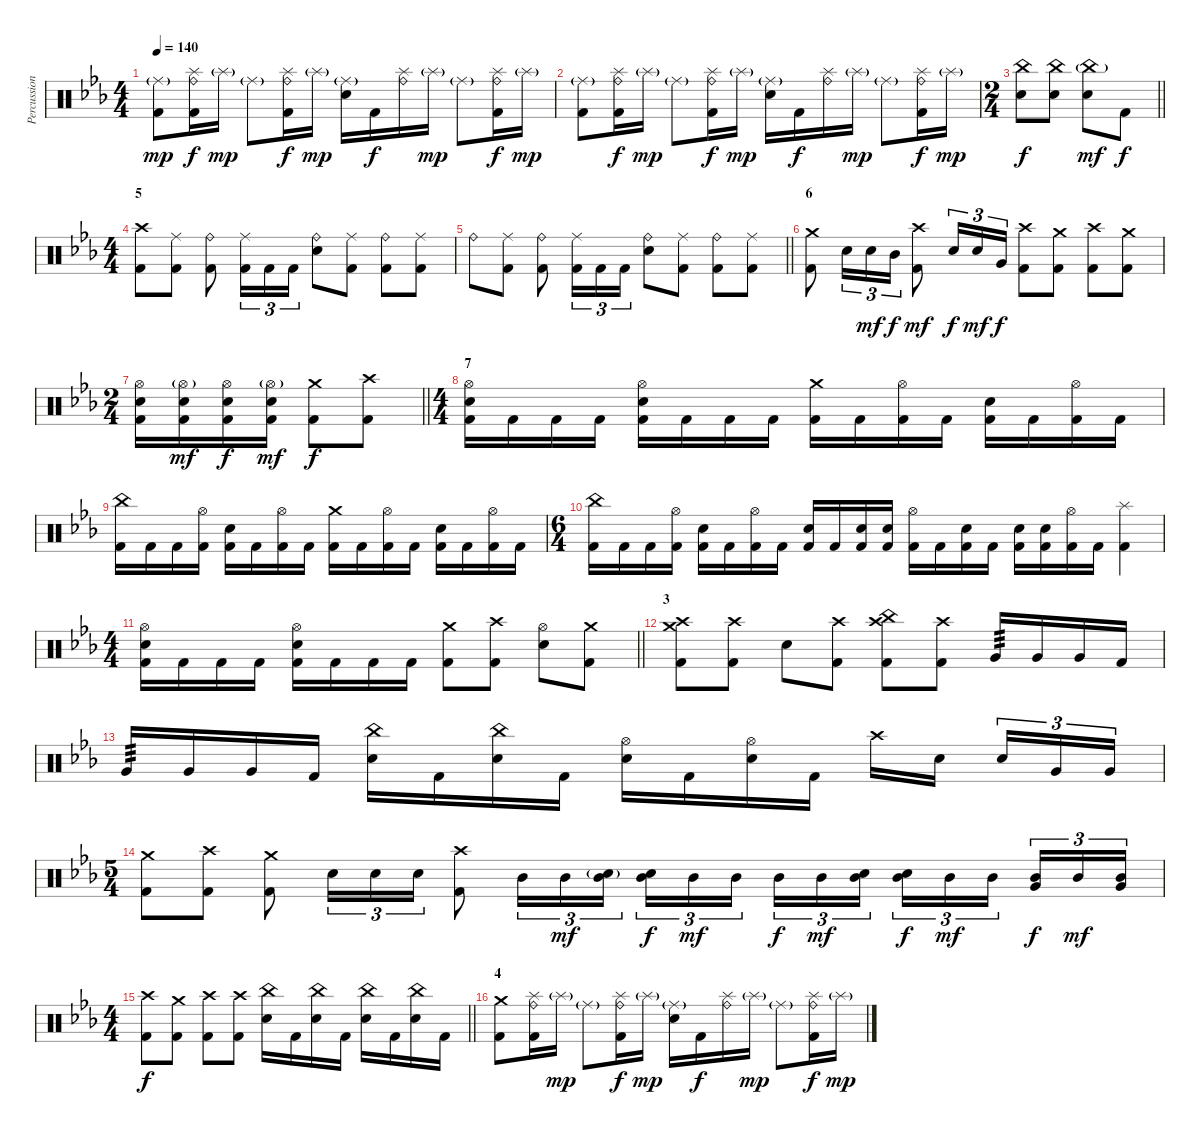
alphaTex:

\track ("Percussion" "Percussion") {instrument percussion}
\staff {score}
\articulation defaults
\ts (4 4)
\tempo 140
\clef neutral
\ks cminor
("Ride (middle)"{g} "Kick (hit) 2").8{dy mp} ("Ride (bell)" "Splash (hit)" "Kick (hit) 2").16{dy f} "Splash (hit)"{g}.16{dy mp} "Ride (middle)"{g}.8 ("Ride (bell)" "Splash (hit)" "Kick (hit) 2").16{dy f} "Splash (hit)"{g}.16{dy mp} ("Ride (middle)"{g} "Snare (hit) 2").16 "Kick (hit) 2".16{dy f} ("Ride (bell)" "Splash (hit)").16 "Splash (hit)"{g}.16{dy mp} "Ride (middle)"{g}.8 ("Ride (bell)" "Splash (hit)" "Kick (hit) 2").16{dy f} "Splash (hit)"{g}.16{dy mp} |
("Ride (middle)"{g} "Kick (hit) 2").8 ("Ride (bell)" "Splash (hit)" "Kick (hit) 2").16{dy f} "Splash (hit)"{g}.16{dy mp} "Ride (middle)"{g}.8 ("Ride (bell)" "Splash (hit)" "Kick (hit) 2").16{dy f} "Splash (hit)"{g}.16{dy mp} ("Ride (middle)"{g} "Snare (hit) 2").16 "Kick (hit) 2".16{dy f} ("Ride (bell)" "Splash (hit)").16 "Splash (hit)"{g}.16{dy mp} "Ride (middle)"{g}.8 ("Ride (bell)" "Splash (hit)" "Kick (hit) 2").16{dy f} "Splash (hit)"{g}.16{dy mp} |
\ts (2 4)
\barLineRight lightlight
("China (hit)" "Snare (hit) 2").8{dy f} ("China (hit)" "Snare (hit) 2").8 ("China (hit)"{g} "Snare (hit) 2").8{dy mf} "Kick (hit) 2".8{dy f} |
\ts (4 4)
\section ("" "5")
("Crash high (hit)" "Kick (hit) 2").8 ("Ride (middle)" "Kick (hit) 2").8 ("Ride (bell)" "Kick (hit) 2").8 ("Ride (middle)" "Kick (hit) 2").16{tu (3 2)} "Kick (hit) 2".16{tu (3 2)} "Kick (hit) 2".16{tu (3 2)} ("Ride (bell)" "Snare (hit) 2").8 ("Ride (middle)" "Kick (hit) 2").8 ("Ride (bell)" "Kick (hit) 2").8 ("Ride (middle)" "Kick (hit) 2").8 |
\barLineRight lightlight "Ride (bell)".8
("Ride (middle)" "Kick (hit) 2").8 ("Ride (bell)" "Kick (hit) 2").8 ("Ride (middle)" "Kick (hit) 2").16{tu (3 2)} "Kick (hit) 2".16{tu (3 2)} "Kick (hit) 2".16{tu (3 2)} ("Ride (bell)" "Snare (hit) 2").8 ("Ride (middle)" "Kick (hit) 2").8 ("Ride (bell)" "Kick (hit) 2").8 ("Ride (middle)" "Kick (hit) 2").8 |
\section ("" "6")
("Crash medium (hit)" "Kick (hit) 2").8 "Snare (hit) 2".16{tu (3 2)} "Snare (hit) 2".16{tu (3 2) dy mf} "Mid Tom (hit)".16{tu (3 2) dy f} ("Crash high (hit)" "Kick (hit) 2").8{dy mf} "Snare (hit) 2".16{tu (3 2) dy f} "Snare (hit) 2".16{tu (3 2) dy mf} "Very Low Tom (hit)".16{tu (3 2) dy f} ("Crash high (hit)" "Kick (hit) 2").8 ("Crash medium (hit)" "Kick (hit) 2").8 ("Crash high (hit)" "Kick (hit) 2").8 ("Crash medium (hit)" "Kick (hit) 2").8 |
\ts (2 4)
\barLineRight lightlight
("Hi-Hat (open)" "Snare (hit) 2" "Kick (hit) 2").16 ("Hi-Hat (open)"{g} "Snare (hit) 2" "Kick (hit) 2").16{dy mf} ("Hi-Hat (open)" "Snare (hit) 2" "Kick (hit) 2").16{dy f} ("Hi-Hat (open)"{g} "Snare (hit) 2" "Kick (hit) 2").16{dy mf} ("Crash medium (hit)" "Kick (hit) 2").8{dy f} ("Crash high (hit)" "Kick (hit) 2").8 |
\ts (4 4)
\section ("" "7")
("Hi-Hat (open)" "Snare (hit) 2" "Kick (hit) 2").16 "Kick (hit) 2".16 "Kick (hit) 2".16 "Kick (hit) 2".16 ("Hi-Hat (open)" "Snare (hit) 2" "Kick (hit) 2").16 "Kick (hit) 2".16 "Kick (hit) 2".16 "Kick (hit) 2".16 ("Crash medium (hit)" "Kick (hit) 2").16 "Kick (hit) 2".16 ("Hi-Hat (open)" "Kick (hit) 2").16 "Kick (hit) 2".16 ("Snare (hit) 2" "Kick (hit) 2").16 "Kick (hit) 2".16 ("Hi-Hat (open)" "Kick (hit) 2").16 "Kick (hit) 2".16 |
("China (hit)" "Kick (hit) 2").16 "Kick (hit) 2".16 "Kick (hit) 2".16 ("Hi-Hat (open)" "Kick (hit) 2").16 ("Snare (hit) 2" "Kick (hit) 2").16 "Kick (hit) 2".16 ("Hi-Hat (open)" "Kick (hit) 2").16 "Kick (hit) 2".16 ("Crash medium (hit)" "Kick (hit) 2").16 "Kick (hit) 2".16 ("Hi-Hat (open)" "Kick (hit) 2").16 "Kick (hit) 2".16 ("Snare (hit) 2" "Kick (hit) 2").16 "Kick (hit) 2".16 ("Hi-Hat (open)" "Kick (hit) 2").16 "Kick (hit) 2".16 |
\ts (6 4)
("China (hit)" "Kick (hit) 2").16 "Kick (hit) 2".16 "Kick (hit) 2".16 ("Hi-Hat (open)" "Kick (hit) 2").16 ("Snare (hit) 2" "Kick (hit) 2").16 "Kick (hit) 2".16 ("Hi-Hat (open)" "Kick (hit) 2").16 "Kick (hit) 2".16 ("Snare (hit) 2" "Kick (hit) 2").16 "Kick (hit) 2".16 ("Snare (hit) 2" "Kick (hit) 2").16 ("Snare (hit) 2" "Kick (hit) 2").16 ("Hi-Hat (open)" "Kick (hit) 2").16 "Kick (hit) 2".16 ("Snare (hit) 2" "Kick (hit) 2").16 "Kick (hit) 2".16 ("Snare (hit) 2" "Kick (hit) 2").16 ("Snare (hit) 2" "Kick (hit) 2").16 ("Hi-Hat (open)" "Kick (hit) 2").16 "Kick (hit) 2".16 ("Splash (hit)" "Kick (hit) 2").4 |
\ts (4 4)
\barLineRight lightlight
("Hi-Hat (open)" "Snare (hit) 2" "Kick (hit) 2").16 "Kick (hit) 2".16 "Kick (hit) 2".16 "Kick (hit) 2".16 ("Hi-Hat (open)" "Snare (hit) 2" "Kick (hit) 2").16 "Kick (hit) 2".16 "Kick (hit) 2".16 "Kick (hit) 2".16 ("Crash medium (hit)" "Kick (hit) 2").8 ("Crash high (hit)" "Kick (hit) 2").8 ("Hi-Hat (open)" "Snare (hit) 2").8 ("Crash medium (hit)" "Kick (hit) 2").8 |
\section ("" "3")
("Crash medium (hit)" "Crash high (hit)" "Kick (hit) 2").8 ("Crash high (hit)" "Kick (hit) 2").8 "Snare (hit) 2".8 ("Crash high (hit)" "Kick (hit) 2").8 ("China (hit)" "Crash high (hit)" "Kick (hit) 2").8 ("Crash high (hit)" "Kick (hit) 2").8 "Very Low Tom (hit)".16{tp 3} "Very Low Tom (hit)".16 "Very Low Tom (hit)".16 "Kick (hit) 2".16 |
"Very Low Tom (hit)".16{tp 3} "Very Low Tom (hit)".16 "Very Low Tom (hit)".16 "Kick (hit) 2".16 ("China (hit)" "Snare (hit) 2").16 "Kick (hit) 2".16 ("China (hit)" "Snare (hit) 2").16 "Kick (hit) 2".16 ("Hi-Hat (open)" "Snare (hit) 2").16 "Kick (hit) 2".16 ("Hi-Hat (open)" "Snare (hit) 2").16 "Kick (hit) 2".16 "Crash high (hit)".16 "Snare (hit) 2".16{beam splitsecondary} "Snare (hit) 2".16{tu (3 2)} "Very Low Tom (hit)".16{tu (3 2)} "Very Low Tom (hit)".16{tu (3 2)} |
\ts (5 4)
("Crash medium (hit)" "Kick (hit) 2").8 ("Crash high (hit)" "Kick (hit) 2").8 ("Crash medium (hit)" "Kick (hit) 2").8 "Snare (hit) 2".16{tu (3 2)} "Snare (hit) 2".16{tu (3 2)} "Snare (hit) 2".16{tu (3 2)} ("Crash high (hit)" "Kick (hit) 2").8 "Mid Tom (hit)".16{tu (3 2)} "Mid Tom (hit)".16{tu (3 2) dy mf} ("Mid Tom (hit)" "Snare (hit) 2"{g}).16{tu (3 2)} ("Mid Tom (hit)" "Snare (hit) 2").16{tu (3 2) dy f} "Mid Tom (hit)".16{tu (3 2) dy mf} "Mid Tom (hit)".16{tu (3 2) beam splitsecondary} "Mid Tom (hit)".16{tu (3 2) dy f} "Mid Tom (hit)".16{tu (3 2) dy mf} ("Mid Tom (hit)" "Snare (hit) 2").16{tu (3 2)} ("Mid Tom (hit)" "Snare (hit) 2").16{tu (3 2) dy f} "Mid Tom (hit)".16{tu (3 2) dy mf} "Mid Tom (hit)".16{tu (3 2) beam splitsecondary} ("Mid Tom (hit)" "Very Low Tom (hit)").16{tu (3 2) dy f} "Mid Tom (hit)".16{tu (3 2) dy mf} ("Mid Tom (hit)" "Very Low Tom (hit)").16{tu (3 2)} |
\ts (4 4)
\barLineRight lightlight
("Crash high (hit)" "Kick (hit) 2").8{dy f} ("Crash medium (hit)" "Kick (hit) 2").8 ("Crash high (hit)" "Kick (hit) 2").8 ("Crash high (hit)" "Kick (hit) 2").8 ("China (hit)" "Snare (hit) 2").16 "Kick (hit) 2".16 ("China (hit)" "Snare (hit) 2").16 "Kick (hit) 2".16 ("China (hit)" "Snare (hit) 2").16 "Kick (hit) 2".16 ("China (hit)" "Snare (hit) 2").16 "Kick (hit) 2".16 |
\section ("" "4")
("Crash medium (hit)" "Kick (hit) 2").8 ("Ride (bell)" "Splash (hit)" "Kick (hit) 2").16 "Splash (hit)"{g}.16{dy mp} "Ride (middle)"{g}.8 ("Ride (bell)" "Splash (hit)" "Kick (hit) 2").16{dy f} "Splash (hit)"{g}.16{dy mp} ("Ride (middle)"{g} "Snare (hit) 2").16 "Kick (hit) 2".16{dy f} ("Ride (bell)" "Splash (hit)").16 "Splash (hit)"{g}.16{dy mp} "Ride (middle)"{g}.8 ("Ride (bell)" "Splash (hit)" "Kick (hit) 2").16{dy f} "Splash (hit)"{g}.16{dy mp}
